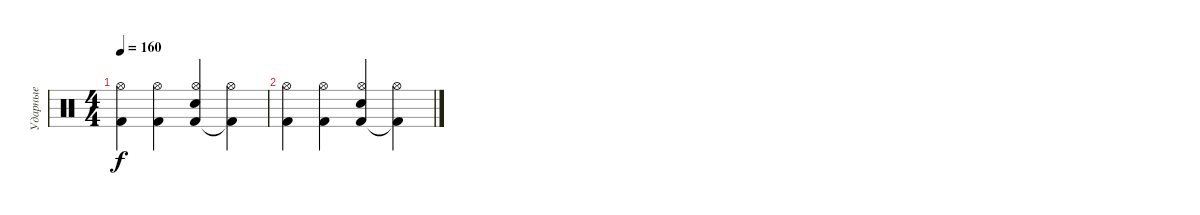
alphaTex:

\track ("Ударные" "Ударные") {instrument percussion}
\staff {score}
\articulation defaults
\ts (4 4)
\tempo 160
\clef neutral
\ks c
("Kick (hit) 2" "Hi-Hat (open)").4{dy f} ("Kick (hit) 2" "Hi-Hat (open)").4 ("Kick (hit) 2" "Electric Snare (hit)" "Hi-Hat (open)").4 ("Kick (hit) 2"{t} "Hi-Hat (open)").4 |
("Kick (hit) 2" "Hi-Hat (open)").4 ("Kick (hit) 2" "Hi-Hat (open)").4 ("Kick (hit) 2" "Electric Snare (hit)" "Hi-Hat (open)").4 ("Kick (hit) 2"{t} "Hi-Hat (open)").4
